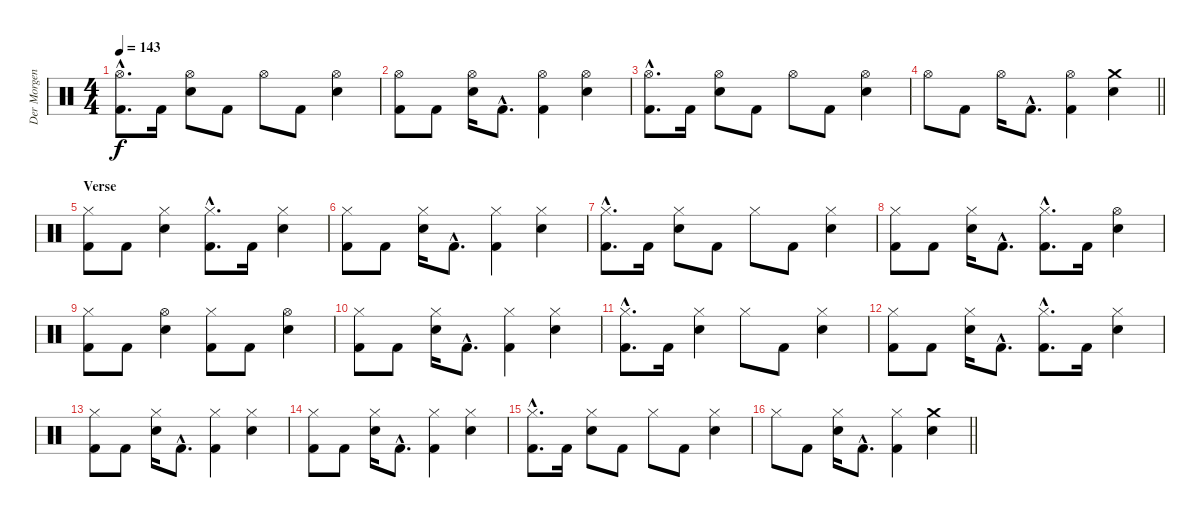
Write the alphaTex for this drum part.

\track ("Der Morgenstern" "Der Morgen") {instrument percussion}
\staff {score}
\articulation defaults
\ts (4 4)
\tempo 143
\clef neutral
\ks c
("Hi-Hat (open)"{hac} "Kick (hit) 2"{hac}).8{d dy f} "Kick (hit) 2".16 ("Hi-Hat (open)" "Electric Snare (hit)").8 "Kick (hit) 2".8 "Hi-Hat (open)".8 "Kick (hit) 2".8 ("Hi-Hat (open)" "Electric Snare (hit)").4 |
("Hi-Hat (open)" "Kick (hit) 2").8 "Kick (hit) 2".8 ("Hi-Hat (open)" "Electric Snare (hit)").16 "Kick (hit) 2"{hac}.8{d} ("Hi-Hat (open)" "Kick (hit) 2").4 ("Hi-Hat (open)" "Electric Snare (hit)").4 |
("Hi-Hat (open)"{hac} "Kick (hit) 2"{hac}).8{d} "Kick (hit) 2".16 ("Hi-Hat (open)" "Electric Snare (hit)").8 "Kick (hit) 2".8 "Hi-Hat (open)".8 "Kick (hit) 2".8 ("Hi-Hat (open)" "Electric Snare (hit)").4 |
\barLineRight lightlight "Hi-Hat (open)".8 "Kick (hit) 2".8 "Hi-Hat (open)".16 "Kick (hit) 2"{hac}.8{d}
("Hi-Hat (open)" "Kick (hit) 2").4 ("Crash medium (hit)" "Electric Snare (hit)").4 |
\section ("" "Verse")
("Hi-Hat (closed)" "Kick (hit) 2").8 "Kick (hit) 2".8 ("Hi-Hat (closed)" "Electric Snare (hit)").4 ("Hi-Hat (closed)"{hac} "Kick (hit) 2"{hac}).8{d} "Kick (hit) 2".16 ("Hi-Hat (closed)" "Electric Snare (hit)").4 |
("Hi-Hat (closed)" "Kick (hit) 2").8 "Kick (hit) 2".8 ("Hi-Hat (closed)" "Electric Snare (hit)").16 "Kick (hit) 2"{hac}.8{d} ("Hi-Hat (closed)" "Kick (hit) 2").4 ("Hi-Hat (closed)" "Electric Snare (hit)").4 |
("Hi-Hat (closed)"{hac} "Kick (hit) 2"{hac}).8{d} "Kick (hit) 2".16 ("Hi-Hat (closed)" "Electric Snare (hit)").8 "Kick (hit) 2".8 "Hi-Hat (closed)".8 "Kick (hit) 2".8 ("Hi-Hat (closed)" "Electric Snare (hit)").4 |
("Hi-Hat (closed)" "Kick (hit) 2").8 "Kick (hit) 2".8 ("Hi-Hat (closed)" "Electric Snare (hit)").16 "Kick (hit) 2"{hac}.8{d} ("Hi-Hat (closed)"{hac} "Kick (hit) 2"{hac}).8{d} "Kick (hit) 2".16 ("Hi-Hat (open)" "Electric Snare (hit)").4 |
("Hi-Hat (closed)" "Kick (hit) 2").8 "Kick (hit) 2".8 ("Hi-Hat (open)" "Electric Snare (hit)").4 ("Hi-Hat (closed)" "Kick (hit) 2").8 "Kick (hit) 2".8 ("Hi-Hat (open)" "Electric Snare (hit)").4 |
("Hi-Hat (closed)" "Kick (hit) 2").8 "Kick (hit) 2".8 ("Hi-Hat (closed)" "Electric Snare (hit)").16 "Kick (hit) 2"{hac}.8{d} ("Hi-Hat (closed)" "Kick (hit) 2").4 ("Hi-Hat (closed)" "Electric Snare (hit)").4 |
("Hi-Hat (closed)"{hac} "Kick (hit) 2"{hac}).8{d} "Kick (hit) 2".16 ("Hi-Hat (closed)" "Electric Snare (hit)").4 "Hi-Hat (closed)".8 "Kick (hit) 2".8 ("Hi-Hat (closed)" "Electric Snare (hit)").4 |
("Hi-Hat (closed)" "Kick (hit) 2").8 "Kick (hit) 2".8 ("Hi-Hat (closed)" "Electric Snare (hit)").16 "Kick (hit) 2"{hac}.8{d} ("Hi-Hat (closed)"{hac} "Kick (hit) 2"{hac}).8{d} "Kick (hit) 2".16 ("Hi-Hat (closed)" "Electric Snare (hit)").4 |
("Hi-Hat (closed)" "Kick (hit) 2").8 "Kick (hit) 2".8 ("Hi-Hat (closed)" "Electric Snare (hit)").16 "Kick (hit) 2"{hac}.8{d} ("Hi-Hat (closed)" "Kick (hit) 2").4 ("Hi-Hat (closed)" "Electric Snare (hit)").4 |
("Hi-Hat (closed)" "Kick (hit) 2").8 "Kick (hit) 2".8 ("Hi-Hat (closed)" "Electric Snare (hit)").16 "Kick (hit) 2"{hac}.8{d} ("Hi-Hat (closed)" "Kick (hit) 2").4 ("Hi-Hat (closed)" "Electric Snare (hit)").4 |
("Hi-Hat (closed)"{hac} "Kick (hit) 2"{hac}).8{d} "Kick (hit) 2".16 ("Hi-Hat (closed)" "Electric Snare (hit)").8 "Kick (hit) 2".8 "Hi-Hat (closed)".8 "Kick (hit) 2".8 ("Hi-Hat (closed)" "Electric Snare (hit)").4 |
\barLineRight lightlight "Hi-Hat (closed)".8 "Kick (hit) 2".8
("Hi-Hat (closed)" "Electric Snare (hit)").16 "Kick (hit) 2"{hac}.8{d} ("Hi-Hat (closed)" "Kick (hit) 2").4 ("Crash medium (hit)" "Electric Snare (hit)").4
